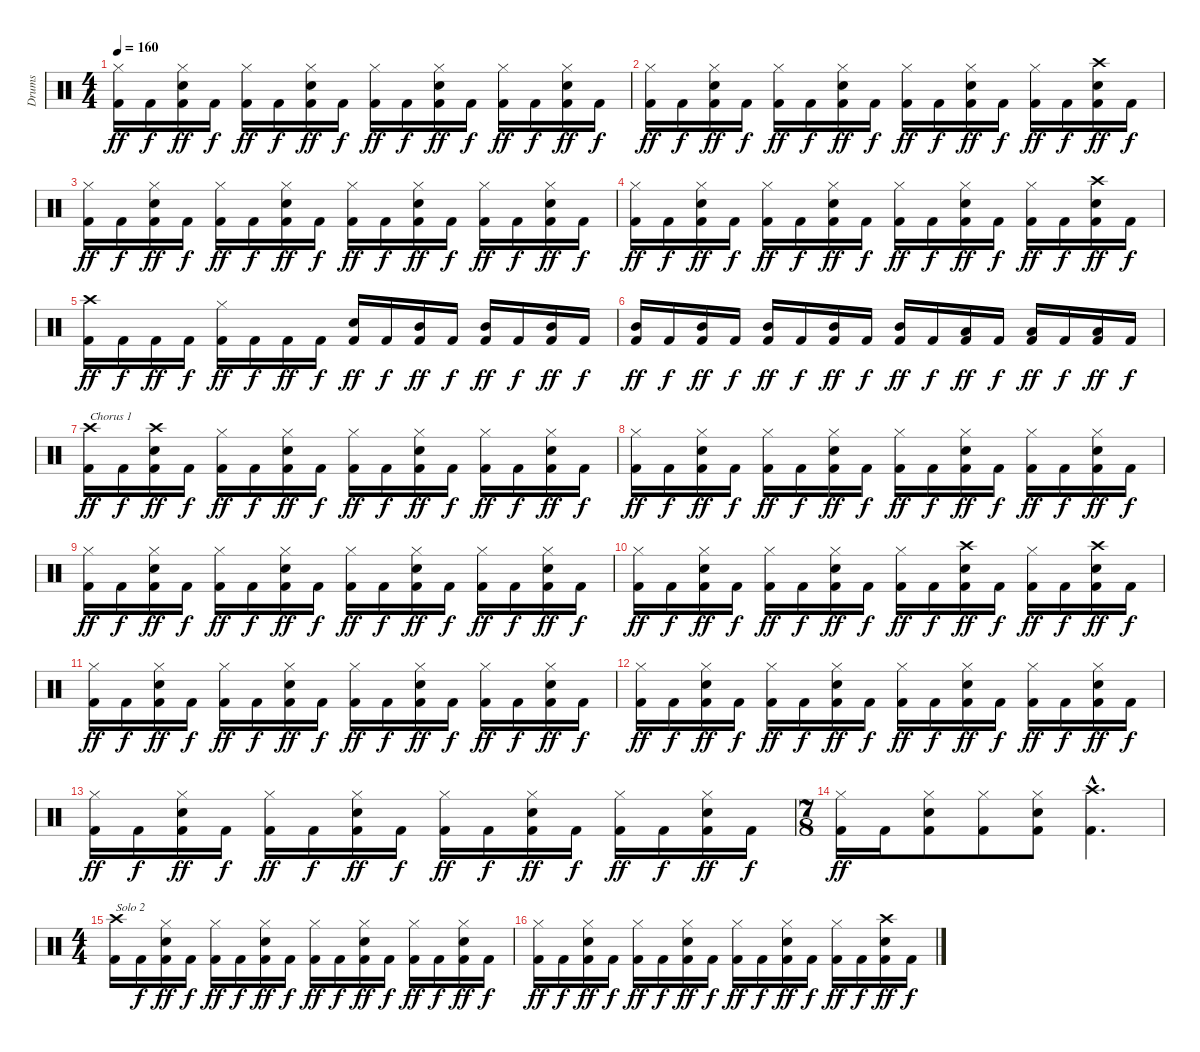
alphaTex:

\track ("Drums" "Drums") {instrument percussion}
\staff {score}
\articulation defaults
\ts (4 4)
\tempo 160
\clef neutral
\ks c
("Hi-Hat (closed)" "Kick (hit) 2").16{dy ff} "Kick (hit) 2".16{dy f} ("Hi-Hat (closed)" "Snare (hit) 2" "Kick (hit) 2").16{dy ff} "Kick (hit) 2".16{dy f} ("Hi-Hat (closed)" "Kick (hit) 2").16{dy ff} "Kick (hit) 2".16{dy f} ("Hi-Hat (closed)" "Snare (hit) 2" "Kick (hit) 2").16{dy ff} "Kick (hit) 2".16{dy f} ("Hi-Hat (closed)" "Kick (hit) 2").16{dy ff} "Kick (hit) 2".16{dy f} ("Hi-Hat (closed)" "Snare (hit) 2" "Kick (hit) 2").16{dy ff} "Kick (hit) 2".16{dy f} ("Hi-Hat (closed)" "Kick (hit) 2").16{dy ff} "Kick (hit) 2".16{dy f} ("Hi-Hat (closed)" "Snare (hit) 2" "Kick (hit) 2").16{dy ff} "Kick (hit) 2".16{dy f} |
("Hi-Hat (closed)" "Kick (hit) 2").16{dy ff} "Kick (hit) 2".16{dy f} ("Hi-Hat (closed)" "Snare (hit) 2" "Kick (hit) 2").16{dy ff} "Kick (hit) 2".16{dy f} ("Hi-Hat (closed)" "Kick (hit) 2").16{dy ff} "Kick (hit) 2".16{dy f} ("Hi-Hat (closed)" "Snare (hit) 2" "Kick (hit) 2").16{dy ff} "Kick (hit) 2".16{dy f} ("Hi-Hat (closed)" "Kick (hit) 2").16{dy ff} "Kick (hit) 2".16{dy f} ("Hi-Hat (closed)" "Snare (hit) 2" "Kick (hit) 2").16{dy ff} "Kick (hit) 2".16{dy f} ("Hi-Hat (closed)" "Kick (hit) 2").16{dy ff} "Kick (hit) 2".16{dy f} ("Crash high (hit)" "Snare (hit) 2" "Kick (hit) 2").16{dy ff} "Kick (hit) 2".16{dy f} |
("Hi-Hat (closed)" "Kick (hit) 2").16{dy ff} "Kick (hit) 2".16{dy f} ("Hi-Hat (closed)" "Snare (hit) 2" "Kick (hit) 2").16{dy ff} "Kick (hit) 2".16{dy f} ("Hi-Hat (closed)" "Kick (hit) 2").16{dy ff} "Kick (hit) 2".16{dy f} ("Hi-Hat (closed)" "Snare (hit) 2" "Kick (hit) 2").16{dy ff} "Kick (hit) 2".16{dy f} ("Hi-Hat (closed)" "Kick (hit) 2").16{dy ff} "Kick (hit) 2".16{dy f} ("Hi-Hat (closed)" "Snare (hit) 2" "Kick (hit) 2").16{dy ff} "Kick (hit) 2".16{dy f} ("Hi-Hat (closed)" "Kick (hit) 2").16{dy ff} "Kick (hit) 2".16{dy f} ("Hi-Hat (closed)" "Snare (hit) 2" "Kick (hit) 2").16{dy ff} "Kick (hit) 2".16{dy f} |
("Hi-Hat (closed)" "Kick (hit) 2").16{dy ff} "Kick (hit) 2".16{dy f} ("Hi-Hat (closed)" "Snare (hit) 2" "Kick (hit) 2").16{dy ff} "Kick (hit) 2".16{dy f} ("Hi-Hat (closed)" "Kick (hit) 2").16{dy ff} "Kick (hit) 2".16{dy f} ("Hi-Hat (closed)" "Snare (hit) 2" "Kick (hit) 2").16{dy ff} "Kick (hit) 2".16{dy f} ("Hi-Hat (closed)" "Kick (hit) 2").16{dy ff} "Kick (hit) 2".16{dy f} ("Hi-Hat (closed)" "Snare (hit) 2" "Kick (hit) 2").16{dy ff} "Kick (hit) 2".16{dy f} ("Hi-Hat (closed)" "Kick (hit) 2").16{dy ff} "Kick (hit) 2".16{dy f} ("Crash high (hit)" "Snare (hit) 2" "Kick (hit) 2").16{dy ff} "Kick (hit) 2".16{dy f} |
("Crash high (hit)" "Kick (hit) 2").16{dy ff} "Kick (hit) 2".16{dy f} "Kick (hit) 2".16{dy ff} "Kick (hit) 2".16{dy f} ("Hi-Hat (closed)" "Kick (hit) 2").16{dy ff} "Kick (hit) 2".16{dy f} "Kick (hit) 2".16{dy ff} "Kick (hit) 2".16{dy f} ("Snare (hit) 2" "Kick (hit) 2").16{dy ff} "Kick (hit) 2".16{dy f} ("Mid Tom (hit)" "Kick (hit) 2").16{dy ff} "Kick (hit) 2".16{dy f} ("Mid Tom (hit)" "Kick (hit) 2").16{dy ff} "Kick (hit) 2".16{dy f} ("Mid Tom (hit)" "Kick (hit) 2").16{dy ff} "Kick (hit) 2".16{dy f} |
("Mid Tom (hit)" "Kick (hit) 2").16{dy ff} "Kick (hit) 2".16{dy f} ("Mid Tom (hit)" "Kick (hit) 2").16{dy ff} "Kick (hit) 2".16{dy f} ("Mid Tom (hit)" "Kick (hit) 2").16{dy ff} "Kick (hit) 2".16{dy f} ("Mid Tom (hit)" "Kick (hit) 2").16{dy ff} "Kick (hit) 2".16{dy f} ("Mid Tom (hit)" "Kick (hit) 2").16{dy ff} "Kick (hit) 2".16{dy f} ("Low Tom (hit)" "Kick (hit) 2").16{dy ff} "Kick (hit) 2".16{dy f} ("Low Tom (hit)" "Kick (hit) 2").16{dy ff} "Kick (hit) 2".16{dy f} ("Low Floor Tom (hit)" "Kick (hit) 2").16{dy ff} "Kick (hit) 2".16{dy f} |
("Crash high (hit)" "Kick (hit) 2").16{txt "Chorus 1" dy ff} "Kick (hit) 2".16{dy f} ("Crash high (hit)" "Snare (hit) 2" "Kick (hit) 2").16{dy ff} "Kick (hit) 2".16{dy f} ("Hi-Hat (closed)" "Kick (hit) 2").16{dy ff} "Kick (hit) 2".16{dy f} ("Hi-Hat (closed)" "Snare (hit) 2" "Kick (hit) 2").16{dy ff} "Kick (hit) 2".16{dy f} ("Hi-Hat (closed)" "Kick (hit) 2").16{dy ff} "Kick (hit) 2".16{dy f} ("Hi-Hat (closed)" "Snare (hit) 2" "Kick (hit) 2").16{dy ff} "Kick (hit) 2".16{dy f} ("Hi-Hat (closed)" "Kick (hit) 2").16{dy ff} "Kick (hit) 2".16{dy f} ("Hi-Hat (closed)" "Snare (hit) 2" "Kick (hit) 2").16{dy ff} "Kick (hit) 2".16{dy f} |
("Hi-Hat (closed)" "Kick (hit) 2").16{dy ff} "Kick (hit) 2".16{dy f} ("Hi-Hat (closed)" "Snare (hit) 2" "Kick (hit) 2").16{dy ff} "Kick (hit) 2".16{dy f} ("Hi-Hat (closed)" "Kick (hit) 2").16{dy ff} "Kick (hit) 2".16{dy f} ("Hi-Hat (closed)" "Snare (hit) 2" "Kick (hit) 2").16{dy ff} "Kick (hit) 2".16{dy f} ("Hi-Hat (closed)" "Kick (hit) 2").16{dy ff} "Kick (hit) 2".16{dy f} ("Hi-Hat (closed)" "Snare (hit) 2" "Kick (hit) 2").16{dy ff} "Kick (hit) 2".16{dy f} ("Hi-Hat (closed)" "Kick (hit) 2").16{dy ff} "Kick (hit) 2".16{dy f} ("Hi-Hat (closed)" "Snare (hit) 2" "Kick (hit) 2").16{dy ff} "Kick (hit) 2".16{dy f} |
("Hi-Hat (closed)" "Kick (hit) 2").16{dy ff} "Kick (hit) 2".16{dy f} ("Hi-Hat (closed)" "Snare (hit) 2" "Kick (hit) 2").16{dy ff} "Kick (hit) 2".16{dy f} ("Hi-Hat (closed)" "Kick (hit) 2").16{dy ff} "Kick (hit) 2".16{dy f} ("Hi-Hat (closed)" "Snare (hit) 2" "Kick (hit) 2").16{dy ff} "Kick (hit) 2".16{dy f} ("Hi-Hat (closed)" "Kick (hit) 2").16{dy ff} "Kick (hit) 2".16{dy f} ("Hi-Hat (closed)" "Snare (hit) 2" "Kick (hit) 2").16{dy ff} "Kick (hit) 2".16{dy f} ("Hi-Hat (closed)" "Kick (hit) 2").16{dy ff} "Kick (hit) 2".16{dy f} ("Hi-Hat (closed)" "Snare (hit) 2" "Kick (hit) 2").16{dy ff} "Kick (hit) 2".16{dy f} |
("Hi-Hat (closed)" "Kick (hit) 2").16{dy ff} "Kick (hit) 2".16{dy f} ("Hi-Hat (closed)" "Snare (hit) 2" "Kick (hit) 2").16{dy ff} "Kick (hit) 2".16{dy f} ("Hi-Hat (closed)" "Kick (hit) 2").16{dy ff} "Kick (hit) 2".16{dy f} ("Hi-Hat (closed)" "Snare (hit) 2" "Kick (hit) 2").16{dy ff} "Kick (hit) 2".16{dy f} ("Hi-Hat (closed)" "Kick (hit) 2").16{dy ff} "Kick (hit) 2".16{dy f} ("Crash high (hit)" "Snare (hit) 2" "Kick (hit) 2").16{dy ff} "Kick (hit) 2".16{dy f} ("Hi-Hat (closed)" "Kick (hit) 2").16{dy ff} "Kick (hit) 2".16{dy f} ("Crash high (hit)" "Snare (hit) 2" "Kick (hit) 2").16{dy ff} "Kick (hit) 2".16{dy f} |
("Hi-Hat (closed)" "Kick (hit) 2").16{dy ff} "Kick (hit) 2".16{dy f} ("Hi-Hat (closed)" "Snare (hit) 2" "Kick (hit) 2").16{dy ff} "Kick (hit) 2".16{dy f} ("Hi-Hat (closed)" "Kick (hit) 2").16{dy ff} "Kick (hit) 2".16{dy f} ("Hi-Hat (closed)" "Snare (hit) 2" "Kick (hit) 2").16{dy ff} "Kick (hit) 2".16{dy f} ("Hi-Hat (closed)" "Kick (hit) 2").16{dy ff} "Kick (hit) 2".16{dy f} ("Hi-Hat (closed)" "Snare (hit) 2" "Kick (hit) 2").16{dy ff} "Kick (hit) 2".16{dy f} ("Hi-Hat (closed)" "Kick (hit) 2").16{dy ff} "Kick (hit) 2".16{dy f} ("Hi-Hat (closed)" "Snare (hit) 2" "Kick (hit) 2").16{dy ff} "Kick (hit) 2".16{dy f} |
("Hi-Hat (closed)" "Kick (hit) 2").16{dy ff} "Kick (hit) 2".16{dy f} ("Hi-Hat (closed)" "Snare (hit) 2" "Kick (hit) 2").16{dy ff} "Kick (hit) 2".16{dy f} ("Hi-Hat (closed)" "Kick (hit) 2").16{dy ff} "Kick (hit) 2".16{dy f} ("Hi-Hat (closed)" "Snare (hit) 2" "Kick (hit) 2").16{dy ff} "Kick (hit) 2".16{dy f} ("Hi-Hat (closed)" "Kick (hit) 2").16{dy ff} "Kick (hit) 2".16{dy f} ("Hi-Hat (closed)" "Snare (hit) 2" "Kick (hit) 2").16{dy ff} "Kick (hit) 2".16{dy f} ("Hi-Hat (closed)" "Kick (hit) 2").16{dy ff} "Kick (hit) 2".16{dy f} ("Hi-Hat (closed)" "Snare (hit) 2" "Kick (hit) 2").16{dy ff} "Kick (hit) 2".16{dy f} |
("Hi-Hat (closed)" "Kick (hit) 2").16{dy ff} "Kick (hit) 2".16{dy f} ("Hi-Hat (closed)" "Snare (hit) 2" "Kick (hit) 2").16{dy ff} "Kick (hit) 2".16{dy f} ("Hi-Hat (closed)" "Kick (hit) 2").16{dy ff} "Kick (hit) 2".16{dy f} ("Hi-Hat (closed)" "Snare (hit) 2" "Kick (hit) 2").16{dy ff} "Kick (hit) 2".16{dy f} ("Hi-Hat (closed)" "Kick (hit) 2").16{dy ff} "Kick (hit) 2".16{dy f} ("Hi-Hat (closed)" "Snare (hit) 2" "Kick (hit) 2").16{dy ff} "Kick (hit) 2".16{dy f} ("Hi-Hat (closed)" "Kick (hit) 2").16{dy ff} "Kick (hit) 2".16{dy f} ("Hi-Hat (closed)" "Snare (hit) 2" "Kick (hit) 2").16{dy ff} "Kick (hit) 2".16{dy f} |
\ts (7 8)
("Hi-Hat (closed)" "Kick (hit) 2").16{dy ff} "Kick (hit) 2".16 ("Hi-Hat (closed)" "Snare (hit) 2" "Kick (hit) 2").8 ("Hi-Hat (closed)" "Kick (hit) 2").8 ("Hi-Hat (closed)" "Snare (hit) 2" "Kick (hit) 2").8 ("Crash high (hit)"{hac} "Kick (hit) 2"{hac}).4{d} |
\ts (4 4)
("Crash high (hit)" "Kick (hit) 2").16{txt "Solo 2"} "Kick (hit) 2".16{dy f} ("Hi-Hat (closed)" "Snare (hit) 2" "Kick (hit) 2").16{dy ff} "Kick (hit) 2".16{dy f} ("Hi-Hat (closed)" "Kick (hit) 2").16{dy ff} "Kick (hit) 2".16{dy f} ("Hi-Hat (closed)" "Snare (hit) 2" "Kick (hit) 2").16{dy ff} "Kick (hit) 2".16{dy f} ("Hi-Hat (closed)" "Kick (hit) 2").16{dy ff} "Kick (hit) 2".16{dy f} ("Hi-Hat (closed)" "Snare (hit) 2" "Kick (hit) 2").16{dy ff} "Kick (hit) 2".16{dy f} ("Hi-Hat (closed)" "Kick (hit) 2").16{dy ff} "Kick (hit) 2".16{dy f} ("Hi-Hat (closed)" "Snare (hit) 2" "Kick (hit) 2").16{dy ff} "Kick (hit) 2".16{dy f} |
("Hi-Hat (closed)" "Kick (hit) 2").16{dy ff} "Kick (hit) 2".16{dy f} ("Hi-Hat (closed)" "Snare (hit) 2" "Kick (hit) 2").16{dy ff} "Kick (hit) 2".16{dy f} ("Hi-Hat (closed)" "Kick (hit) 2").16{dy ff} "Kick (hit) 2".16{dy f} ("Hi-Hat (closed)" "Snare (hit) 2" "Kick (hit) 2").16{dy ff} "Kick (hit) 2".16{dy f} ("Hi-Hat (closed)" "Kick (hit) 2").16{dy ff} "Kick (hit) 2".16{dy f} ("Hi-Hat (closed)" "Snare (hit) 2" "Kick (hit) 2").16{dy ff} "Kick (hit) 2".16{dy f} ("Hi-Hat (closed)" "Kick (hit) 2").16{dy ff} "Kick (hit) 2".16{dy f} ("Crash high (hit)" "Snare (hit) 2" "Kick (hit) 2").16{dy ff} "Kick (hit) 2".16{dy f}
